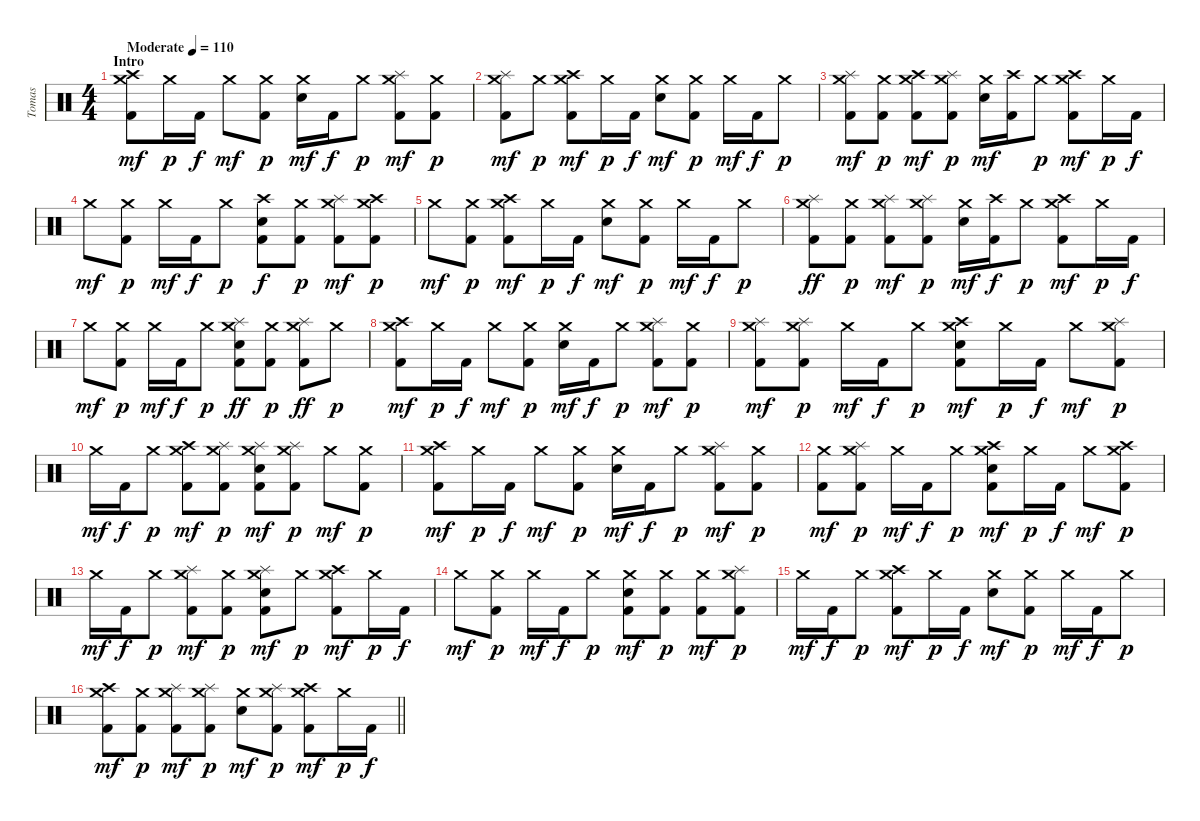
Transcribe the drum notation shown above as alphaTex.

\track ("Tomas" "Tomas") {instrument percussion}
\staff {score}
\articulation defaults
\ts (4 4)
\section ("" "Intro")
\tempo (110 "Moderate")
\clef neutral
\ks c
("Crash medium (hit)" "Crash high (hit)" "Kick (hit) 2").8{dy mf} "Crash medium (hit)".16{dy p} "Kick (hit) 2".16{dy f} "Crash medium (hit)".8{dy mf} ("Crash medium (hit)" "Kick (hit) 2").8{dy p} ("Crash medium (hit)" "Electric Snare (hit)").16{dy mf} "Kick (hit) 2".16{dy f} "Crash medium (hit)".8{dy p} ("Crash medium (hit)" "Splash (hit)" "Kick (hit) 2").8{dy mf} ("Crash medium (hit)" "Kick (hit) 2").8{dy p} |
("Crash medium (hit)" "Splash (hit)" "Kick (hit) 2").8{dy mf} "Crash medium (hit)".8{dy p} ("Crash medium (hit)" "Crash high (hit)" "Kick (hit) 2").8{dy mf} "Crash medium (hit)".16{dy p} "Kick (hit) 2".16{dy f} ("Crash medium (hit)" "Electric Snare (hit)").8{dy mf} ("Crash medium (hit)" "Kick (hit) 2").8{dy p} "Crash medium (hit)".16{dy mf} "Kick (hit) 2".16{dy f} "Crash medium (hit)".8{dy p} |
("Crash medium (hit)" "Splash (hit)" "Kick (hit) 2").8{dy mf} ("Crash medium (hit)" "Kick (hit) 2").8{dy p} ("Crash medium (hit)" "Crash high (hit)" "Kick (hit) 2").8{dy mf} ("Crash medium (hit)" "Splash (hit)" "Kick (hit) 2").8{dy p} ("Crash medium (hit)" "Electric Snare (hit)").16{dy mf} ("Crash high (hit)" "Kick (hit) 2").16 "Crash medium (hit)".8{dy p} ("Crash medium (hit)" "Crash high (hit)" "Kick (hit) 2").8{dy mf} "Crash medium (hit)".16{dy p} "Kick (hit) 2".16{dy f} |
"Crash medium (hit)".8{dy mf} ("Crash medium (hit)" "Kick (hit) 2").8{dy p} "Crash medium (hit)".16{dy mf} "Kick (hit) 2".16{dy f} "Crash medium (hit)".8{dy p} ("Crash high (hit)" "Electric Snare (hit)" "Kick (hit) 2").8{dy f} ("Crash medium (hit)" "Kick (hit) 2").8{dy p} ("Crash medium (hit)" "Splash (hit)" "Kick (hit) 2").8{dy mf} ("Crash medium (hit)" "Crash high (hit)" "Kick (hit) 2").8{dy p} |
"Crash medium (hit)".8{dy mf} ("Crash medium (hit)" "Kick (hit) 2").8{dy p} ("Crash medium (hit)" "Crash high (hit)" "Kick (hit) 2").8{dy mf} "Crash medium (hit)".16{dy p} "Kick (hit) 2".16{dy f} ("Crash medium (hit)" "Electric Snare (hit)").8{dy mf} ("Crash medium (hit)" "Kick (hit) 2").8{dy p} "Crash medium (hit)".16{dy mf} "Kick (hit) 2".16{dy f} "Crash medium (hit)".8{dy p} |
("Crash medium (hit)" "Splash (hit)" "Kick (hit) 2").8{dy ff} ("Crash medium (hit)" "Kick (hit) 2").8{dy p} ("Crash medium (hit)" "Splash (hit)" "Kick (hit) 2").8{dy mf} ("Crash medium (hit)" "Splash (hit)" "Kick (hit) 2").8{dy p} ("Crash medium (hit)" "Electric Snare (hit)").16{dy mf} ("Crash high (hit)" "Kick (hit) 2").16{dy f} "Crash medium (hit)".8{dy p} ("Crash medium (hit)" "Crash high (hit)" "Kick (hit) 2").8{dy mf} "Crash medium (hit)".16{dy p} "Kick (hit) 2".16{dy f} |
"Crash medium (hit)".8{dy mf} ("Crash medium (hit)" "Kick (hit) 2").8{dy p} "Crash medium (hit)".16{dy mf} "Kick (hit) 2".16{dy f} "Crash medium (hit)".8{dy p} ("Crash medium (hit)" "Splash (hit)" "Electric Snare (hit)" "Kick (hit) 2").8{dy ff} ("Crash medium (hit)" "Kick (hit) 2").8{dy p} ("Crash medium (hit)" "Splash (hit)" "Kick (hit) 2").8{dy ff} "Crash medium (hit)".8{dy p} |
("Crash medium (hit)" "Crash high (hit)" "Kick (hit) 2").8{dy mf} "Crash medium (hit)".16{dy p} "Kick (hit) 2".16{dy f} "Crash medium (hit)".8{dy mf} ("Crash medium (hit)" "Kick (hit) 2").8{dy p} ("Crash medium (hit)" "Electric Snare (hit)").16{dy mf} "Kick (hit) 2".16{dy f} "Crash medium (hit)".8{dy p} ("Crash medium (hit)" "Splash (hit)" "Kick (hit) 2").8{dy mf} ("Crash medium (hit)" "Kick (hit) 2").8{dy p} |
("Crash medium (hit)" "Splash (hit)" "Kick (hit) 2").8{dy mf} ("Crash medium (hit)" "Splash (hit)" "Kick (hit) 2").8{dy p} "Crash medium (hit)".16{dy mf} "Kick (hit) 2".16{dy f} "Crash medium (hit)".8{dy p} ("Crash medium (hit)" "Crash high (hit)" "Electric Snare (hit)" "Kick (hit) 2").8{dy mf} "Crash medium (hit)".16{dy p} "Kick (hit) 2".16{dy f} "Crash medium (hit)".8{dy mf} ("Crash medium (hit)" "Splash (hit)" "Kick (hit) 2").8{dy p} |
"Crash medium (hit)".16{dy mf} "Kick (hit) 2".16{dy f} "Crash medium (hit)".8{dy p} ("Crash medium (hit)" "Crash high (hit)" "Kick (hit) 2").8{dy mf} ("Crash medium (hit)" "Splash (hit)" "Kick (hit) 2").8{dy p} ("Crash medium (hit)" "Splash (hit)" "Electric Snare (hit)" "Kick (hit) 2").8{dy mf} ("Crash medium (hit)" "Splash (hit)" "Kick (hit) 2").8{dy p} "Crash medium (hit)".8{dy mf} ("Crash medium (hit)" "Kick (hit) 2").8{dy p} |
("Crash medium (hit)" "Crash high (hit)" "Kick (hit) 2").8{dy mf} "Crash medium (hit)".16{dy p} "Kick (hit) 2".16{dy f} "Crash medium (hit)".8{dy mf} ("Crash medium (hit)" "Kick (hit) 2").8{dy p} ("Crash medium (hit)" "Electric Snare (hit)").16{dy mf} "Kick (hit) 2".16{dy f} "Crash medium (hit)".8{dy p} ("Crash medium (hit)" "Splash (hit)" "Kick (hit) 2").8{dy mf} ("Crash medium (hit)" "Kick (hit) 2").8{dy p} |
("Crash medium (hit)" "Kick (hit) 2").8{dy mf} ("Crash medium (hit)" "Splash (hit)" "Kick (hit) 2").8{dy p} "Crash medium (hit)".16{dy mf} "Kick (hit) 2".16{dy f} "Crash medium (hit)".8{dy p} ("Crash medium (hit)" "Crash high (hit)" "Electric Snare (hit)" "Kick (hit) 2").8{dy mf} "Crash medium (hit)".16{dy p} "Kick (hit) 2".16{dy f} "Crash medium (hit)".8{dy mf} ("Crash medium (hit)" "Crash high (hit)" "Kick (hit) 2").8{dy p} |
"Crash medium (hit)".16{dy mf} "Kick (hit) 2".16{dy f} "Crash medium (hit)".8{dy p} ("Crash medium (hit)" "Splash (hit)" "Kick (hit) 2").8{dy mf} ("Crash medium (hit)" "Kick (hit) 2").8{dy p} ("Crash medium (hit)" "Splash (hit)" "Electric Snare (hit)" "Kick (hit) 2").8{dy mf} "Crash medium (hit)".8{dy p} ("Crash medium (hit)" "Crash high (hit)" "Kick (hit) 2").8{dy mf} "Crash medium (hit)".16{dy p} "Kick (hit) 2".16{dy f} |
"Crash medium (hit)".8{dy mf} ("Crash medium (hit)" "Kick (hit) 2").8{dy p} "Crash medium (hit)".16{dy mf} "Kick (hit) 2".16{dy f} "Crash medium (hit)".8{dy p} ("Crash medium (hit)" "Electric Snare (hit)" "Kick (hit) 2").8{dy mf} ("Crash medium (hit)" "Kick (hit) 2").8{dy p} ("Crash medium (hit)" "Kick (hit) 2").8{dy mf} ("Crash medium (hit)" "Splash (hit)" "Kick (hit) 2").8{dy p} |
"Crash medium (hit)".16{dy mf} "Kick (hit) 2".16{dy f} "Crash medium (hit)".8{dy p} ("Crash medium (hit)" "Crash high (hit)" "Kick (hit) 2").8{dy mf} "Crash medium (hit)".16{dy p} "Kick (hit) 2".16{dy f} ("Crash medium (hit)" "Electric Snare (hit)").8{dy mf} ("Crash medium (hit)" "Kick (hit) 2").8{dy p} "Crash medium (hit)".16{dy mf} "Kick (hit) 2".16{dy f} "Crash medium (hit)".8{dy p} |
\barLineRight lightlight
("Crash medium (hit)" "Crash high (hit)" "Kick (hit) 2").8{dy mf} ("Crash medium (hit)" "Kick (hit) 2").8{dy p} ("Crash medium (hit)" "Splash (hit)" "Kick (hit) 2").8{dy mf} ("Crash medium (hit)" "Splash (hit)" "Kick (hit) 2").8{dy p} ("Crash medium (hit)" "Electric Snare (hit)").8{dy mf} ("Crash medium (hit)" "Splash (hit)" "Kick (hit) 2").8{dy p} ("Crash medium (hit)" "Crash high (hit)" "Kick (hit) 2").8{dy mf} "Crash medium (hit)".16{dy p} "Kick (hit) 2".16{dy f}
